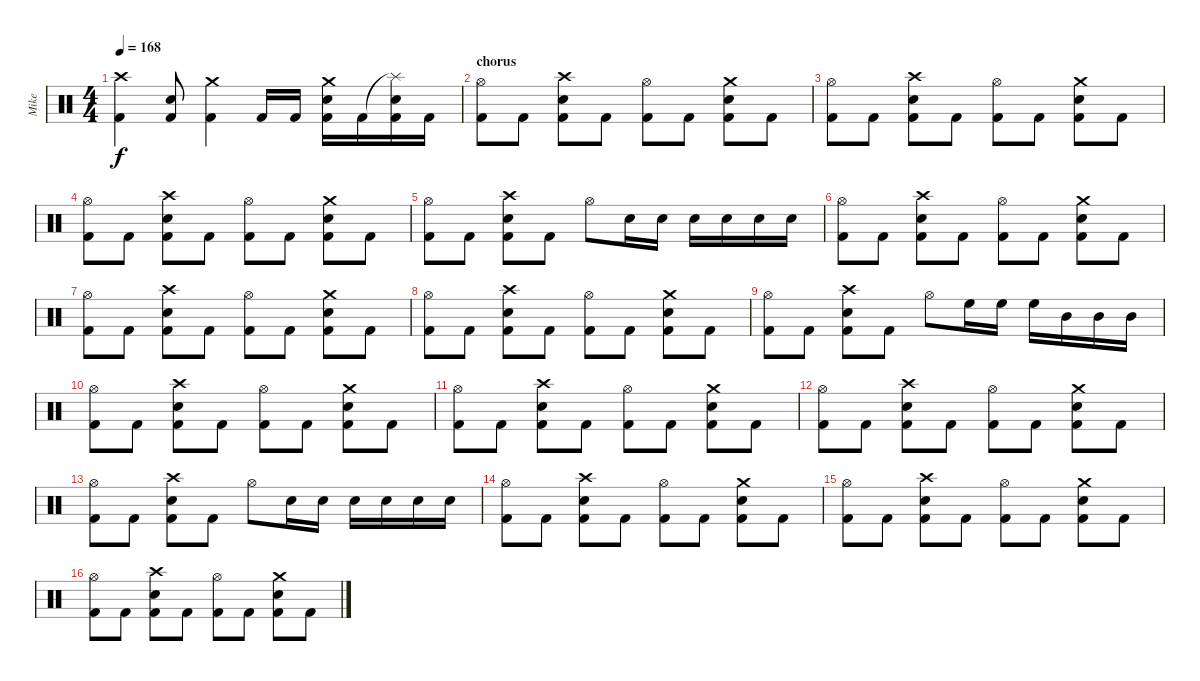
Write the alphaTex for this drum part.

\track ("Mike" "Mike") {instrument percussion}
\staff {score}
\articulation defaults
\ts (4 4)
\tempo 168
\clef neutral
\ks c
("Crash high (hit)" "Kick (hit) 2").4{dy f} ("Snare (hit) 2" "Kick (hit) 2").8 ("Crash medium (hit)" "Kick (hit) 2").4 "Kick (hit) 2".16 "Kick (hit) 2".16 ("Crash medium (hit)" "Snare (hit) 2" "Kick (hit) 2").16 "Kick (hit) 2".16 ("Splash (hit)"{t} "Snare (hit) 2" "Kick (hit) 2").16 "Kick (hit) 2".16 |
\section ("" "chorus")
("Hi-Hat (open)" "Kick (hit) 2").8 "Kick (hit) 2".8 ("Crash high (hit)" "Snare (hit) 2" "Kick (hit) 2").8 "Kick (hit) 2".8 ("Hi-Hat (open)" "Kick (hit) 2").8 "Kick (hit) 2".8 ("Crash medium (hit)" "Snare (hit) 2" "Kick (hit) 2").8 "Kick (hit) 2".8 |
("Hi-Hat (open)" "Kick (hit) 2").8 "Kick (hit) 2".8 ("Crash high (hit)" "Snare (hit) 2" "Kick (hit) 2").8 "Kick (hit) 2".8 ("Hi-Hat (open)" "Kick (hit) 2").8 "Kick (hit) 2".8 ("Crash medium (hit)" "Snare (hit) 2" "Kick (hit) 2").8 "Kick (hit) 2".8 |
("Hi-Hat (open)" "Kick (hit) 2").8 "Kick (hit) 2".8 ("Crash high (hit)" "Snare (hit) 2" "Kick (hit) 2").8 "Kick (hit) 2".8 ("Hi-Hat (open)" "Kick (hit) 2").8 "Kick (hit) 2".8 ("Crash medium (hit)" "Snare (hit) 2" "Kick (hit) 2").8 "Kick (hit) 2".8 |
("Hi-Hat (open)" "Kick (hit) 2").8 "Kick (hit) 2".8 ("Crash high (hit)" "Snare (hit) 2" "Kick (hit) 2").8 "Kick (hit) 2".8 "Hi-Hat (open)".8 "Snare (hit) 2".16 "Snare (hit) 2".16 "Snare (hit) 2".16 "Snare (hit) 2".16 "Snare (hit) 2".16 "Snare (hit) 2".16 |
("Hi-Hat (open)" "Kick (hit) 2").8 "Kick (hit) 2".8 ("Crash high (hit)" "Snare (hit) 2" "Kick (hit) 2").8 "Kick (hit) 2".8 ("Hi-Hat (open)" "Kick (hit) 2").8 "Kick (hit) 2".8 ("Crash medium (hit)" "Snare (hit) 2" "Kick (hit) 2").8 "Kick (hit) 2".8 |
("Hi-Hat (open)" "Kick (hit) 2").8 "Kick (hit) 2".8 ("Crash high (hit)" "Snare (hit) 2" "Kick (hit) 2").8 "Kick (hit) 2".8 ("Hi-Hat (open)" "Kick (hit) 2").8 "Kick (hit) 2".8 ("Crash medium (hit)" "Snare (hit) 2" "Kick (hit) 2").8 "Kick (hit) 2".8 |
("Hi-Hat (open)" "Kick (hit) 2").8 "Kick (hit) 2".8 ("Crash high (hit)" "Snare (hit) 2" "Kick (hit) 2").8 "Kick (hit) 2".8 ("Hi-Hat (open)" "Kick (hit) 2").8 "Kick (hit) 2".8 ("Crash medium (hit)" "Snare (hit) 2" "Kick (hit) 2").8 "Kick (hit) 2".8 |
("Hi-Hat (open)" "Kick (hit) 2").8 "Kick (hit) 2".8 ("Crash high (hit)" "Snare (hit) 2" "Kick (hit) 2").8 "Kick (hit) 2".8 "Hi-Hat (open)".8 "High Floor Tom (hit)".16 "High Floor Tom (hit)".16 "High Floor Tom (hit)".16 "Mid Tom (hit)".16 "Mid Tom (hit)".16 "Mid Tom (hit)".16 |
("Hi-Hat (open)" "Kick (hit) 2").8 "Kick (hit) 2".8 ("Crash high (hit)" "Snare (hit) 2" "Kick (hit) 2").8 "Kick (hit) 2".8 ("Hi-Hat (open)" "Kick (hit) 2").8 "Kick (hit) 2".8 ("Crash medium (hit)" "Snare (hit) 2" "Kick (hit) 2").8 "Kick (hit) 2".8 |
("Hi-Hat (open)" "Kick (hit) 2").8 "Kick (hit) 2".8 ("Crash high (hit)" "Snare (hit) 2" "Kick (hit) 2").8 "Kick (hit) 2".8 ("Hi-Hat (open)" "Kick (hit) 2").8 "Kick (hit) 2".8 ("Crash medium (hit)" "Snare (hit) 2" "Kick (hit) 2").8 "Kick (hit) 2".8 |
("Hi-Hat (open)" "Kick (hit) 2").8 "Kick (hit) 2".8 ("Crash high (hit)" "Snare (hit) 2" "Kick (hit) 2").8 "Kick (hit) 2".8 ("Hi-Hat (open)" "Kick (hit) 2").8 "Kick (hit) 2".8 ("Crash medium (hit)" "Snare (hit) 2" "Kick (hit) 2").8 "Kick (hit) 2".8 |
("Hi-Hat (open)" "Kick (hit) 2").8 "Kick (hit) 2".8 ("Crash high (hit)" "Snare (hit) 2" "Kick (hit) 2").8 "Kick (hit) 2".8 "Hi-Hat (open)".8 "Snare (hit) 2".16 "Snare (hit) 2".16 "Snare (hit) 2".16 "Snare (hit) 2".16 "Snare (hit) 2".16 "Snare (hit) 2".16 |
("Hi-Hat (open)" "Kick (hit) 2").8 "Kick (hit) 2".8 ("Crash high (hit)" "Snare (hit) 2" "Kick (hit) 2").8 "Kick (hit) 2".8 ("Hi-Hat (open)" "Kick (hit) 2").8 "Kick (hit) 2".8 ("Crash medium (hit)" "Snare (hit) 2" "Kick (hit) 2").8 "Kick (hit) 2".8 |
("Hi-Hat (open)" "Kick (hit) 2").8 "Kick (hit) 2".8 ("Crash high (hit)" "Snare (hit) 2" "Kick (hit) 2").8 "Kick (hit) 2".8 ("Hi-Hat (open)" "Kick (hit) 2").8 "Kick (hit) 2".8 ("Crash medium (hit)" "Snare (hit) 2" "Kick (hit) 2").8 "Kick (hit) 2".8 |
("Hi-Hat (open)" "Kick (hit) 2").8 "Kick (hit) 2".8 ("Crash high (hit)" "Snare (hit) 2" "Kick (hit) 2").8 "Kick (hit) 2".8 ("Hi-Hat (open)" "Kick (hit) 2").8 "Kick (hit) 2".8 ("Crash medium (hit)" "Snare (hit) 2" "Kick (hit) 2").8 "Kick (hit) 2".8
